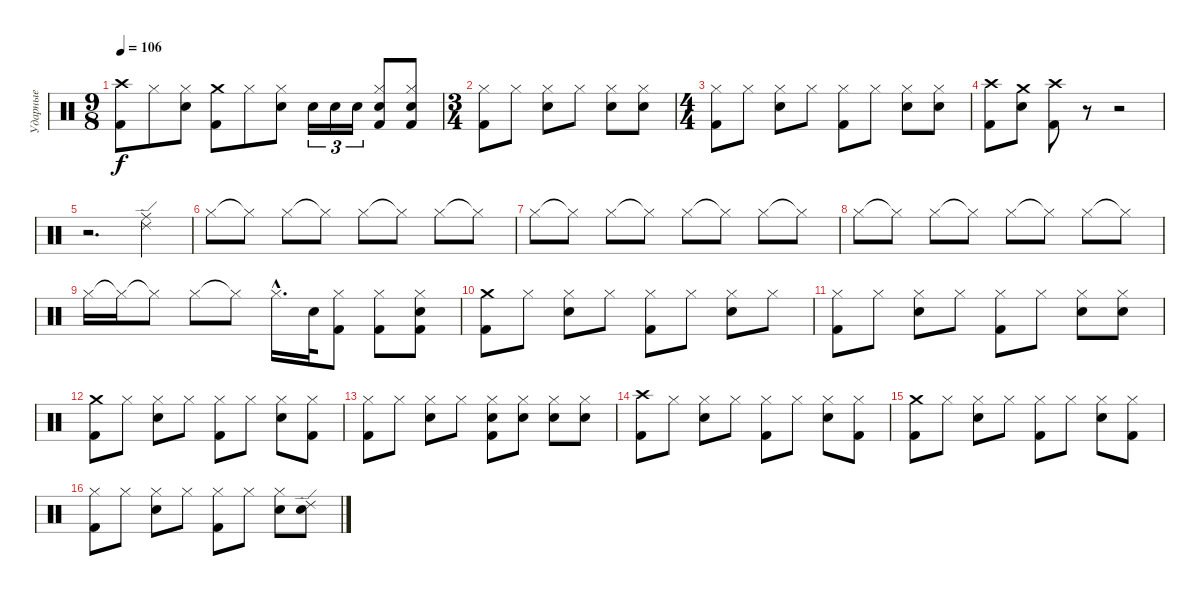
\track ("Ударные" "Ударные") {instrument percussion}
\staff {score}
\articulation defaults
\ts (9 8)
\tempo 106
\clef neutral
\ks c
("Crash high (hit)" "Kick (hit) 2").8{dy f} "Hi-Hat (closed)".8 ("Hi-Hat (closed)" "Snare (hit) 2").8 ("Crash medium (hit)" "Kick (hit) 2").8 "Hi-Hat (closed)".8 ("Hi-Hat (closed)" "Snare (hit) 2").8 "Snare (hit) 2".16{tu (3 2)} "Snare (hit) 2".16{tu (3 2)} "Snare (hit) 2".16{tu (3 2)} ("Hi-Hat (closed)" "Snare (hit) 2" "Kick (hit) 2").8 ("Hi-Hat (closed)" "Snare (hit) 2" "Kick (hit) 2").8 |
\ts (3 4)
("Hi-Hat (closed)" "Kick (hit) 2").8 "Hi-Hat (closed)".8 ("Hi-Hat (closed)" "Snare (hit) 2").8 "Hi-Hat (closed)".8 ("Hi-Hat (closed)" "Snare (hit) 2").8 ("Hi-Hat (closed)" "Snare (hit) 2").8 |
\ts (4 4)
("Hi-Hat (closed)" "Kick (hit) 2").8 "Hi-Hat (closed)".8 ("Hi-Hat (closed)" "Snare (hit) 2").8 "Hi-Hat (closed)".8 ("Hi-Hat (closed)" "Kick (hit) 2").8 "Hi-Hat (closed)".8 ("Hi-Hat (closed)" "Snare (hit) 2").8 ("Hi-Hat (closed)" "Snare (hit) 2").8 |
("Crash high (hit)" "Kick (hit) 2").8 ("Crash medium (hit)" "Snare (hit) 2").8 ("Crash high (hit)" "Kick (hit) 2").8 r.8 r.2 |
r.2{d} ("Ride (middle)" "Ride (edge) 2").4 |
"Hi-Hat (closed)".8 "Hi-Hat (closed)"{t}.8 "Hi-Hat (closed)".8 "Hi-Hat (closed)"{t}.8 "Hi-Hat (closed)".8 "Hi-Hat (closed)"{t}.8 "Hi-Hat (closed)".8 "Hi-Hat (closed)"{t}.8 |
"Hi-Hat (closed)".8 "Hi-Hat (closed)"{t}.8 "Hi-Hat (closed)".8 "Hi-Hat (closed)"{t}.8 "Hi-Hat (closed)".8 "Hi-Hat (closed)"{t}.8 "Hi-Hat (closed)".8 "Hi-Hat (closed)"{t}.8 |
"Hi-Hat (closed)".8 "Hi-Hat (closed)"{t}.8 "Hi-Hat (closed)".8 "Hi-Hat (closed)"{t}.8 "Hi-Hat (closed)".8 "Hi-Hat (closed)"{t}.8 "Hi-Hat (closed)".8 "Hi-Hat (closed)"{t}.8 |
"Hi-Hat (closed)".16 "Hi-Hat (closed)"{t}.16 "Hi-Hat (closed)"{t}.8 "Hi-Hat (closed)".8 "Hi-Hat (closed)"{t}.8 "Hi-Hat (closed)"{hac}.16{d} "Snare (hit) 2".32 ("Hi-Hat (closed)" "Kick (hit) 2").8 ("Hi-Hat (closed)" "Kick (hit) 2").8 ("Hi-Hat (closed)" "Snare (hit) 2" "Kick (hit) 2").8 |
("Crash medium (hit)" "Kick (hit) 2").8 "Hi-Hat (closed)".8 ("Hi-Hat (closed)" "Snare (hit) 2").8 "Hi-Hat (closed)".8 ("Hi-Hat (closed)" "Kick (hit) 2").8 "Hi-Hat (closed)".8 ("Hi-Hat (closed)" "Snare (hit) 2").8 "Hi-Hat (closed)".8 |
("Hi-Hat (closed)" "Kick (hit) 2").8 "Hi-Hat (closed)".8 ("Hi-Hat (closed)" "Snare (hit) 2").8 "Hi-Hat (closed)".8 ("Hi-Hat (closed)" "Kick (hit) 2").8 "Hi-Hat (closed)".8 ("Hi-Hat (closed)" "Snare (hit) 2").8 ("Hi-Hat (closed)" "Snare (hit) 2").8 |
("Crash medium (hit)" "Kick (hit) 2").8 "Hi-Hat (closed)".8 ("Hi-Hat (closed)" "Snare (hit) 2").8 "Hi-Hat (closed)".8 ("Hi-Hat (closed)" "Kick (hit) 2").8 "Hi-Hat (closed)".8 ("Hi-Hat (closed)" "Snare (hit) 2").8 ("Hi-Hat (closed)" "Kick (hit) 2").8 |
("Hi-Hat (closed)" "Kick (hit) 2").8 "Hi-Hat (closed)".8 ("Hi-Hat (closed)" "Snare (hit) 2").8 "Hi-Hat (closed)".8 ("Hi-Hat (closed)" "Snare (hit) 2" "Kick (hit) 2").8 ("Hi-Hat (closed)" "Snare (hit) 2").8 ("Hi-Hat (closed)" "Snare (hit) 2").8 ("Hi-Hat (closed)" "Snare (hit) 2").8 |
("Crash high (hit)" "Kick (hit) 2").8 "Hi-Hat (closed)".8 ("Hi-Hat (closed)" "Snare (hit) 2").8 "Hi-Hat (closed)".8 ("Hi-Hat (closed)" "Kick (hit) 2").8 "Hi-Hat (closed)".8 ("Hi-Hat (closed)" "Snare (hit) 2").8 ("Hi-Hat (closed)" "Kick (hit) 2").8 |
("Crash medium (hit)" "Kick (hit) 2").8 "Hi-Hat (closed)".8 ("Hi-Hat (closed)" "Snare (hit) 2").8 "Hi-Hat (closed)".8 ("Hi-Hat (closed)" "Kick (hit) 2").8 "Hi-Hat (closed)".8 ("Hi-Hat (closed)" "Snare (hit) 2").8 ("Hi-Hat (closed)" "Kick (hit) 2").8 |
("Hi-Hat (closed)" "Kick (hit) 2").8 "Hi-Hat (closed)".8 ("Hi-Hat (closed)" "Snare (hit) 2").8 "Hi-Hat (closed)".8 ("Hi-Hat (closed)" "Kick (hit) 2").8 "Hi-Hat (closed)".8 ("Hi-Hat (closed)" "Snare (hit) 2").8 ("Ride (edge) 2" "Snare (hit) 2").8
